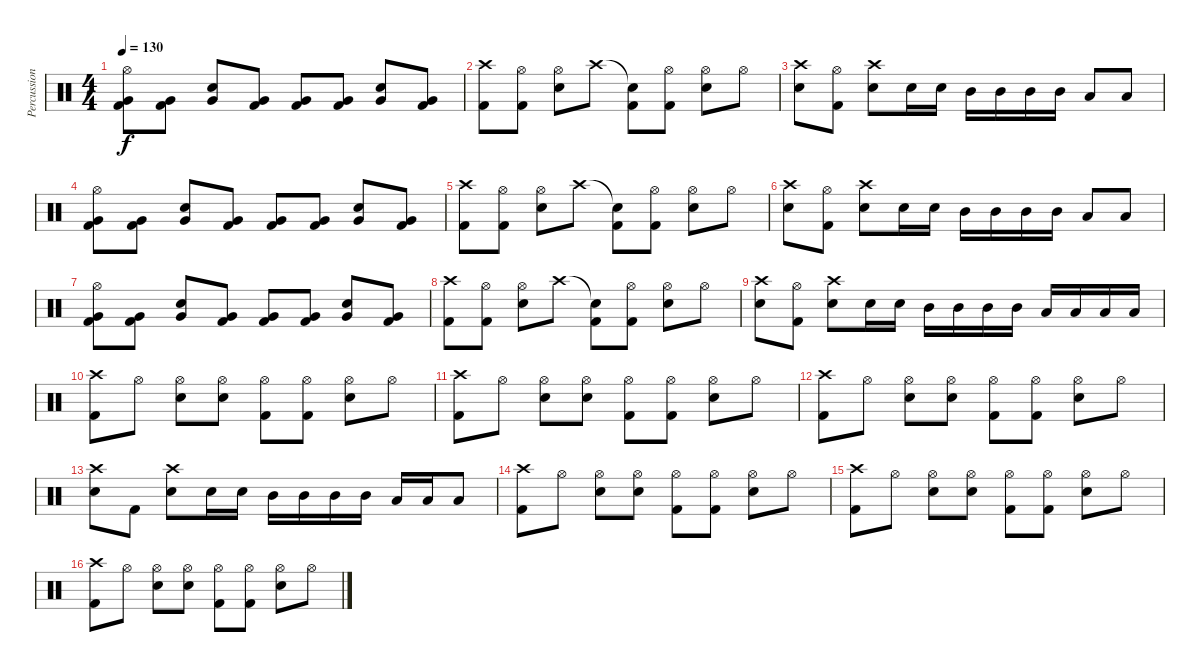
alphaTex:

\track ("Percussion" "Percussion") {instrument percussion}
\staff {score}
\articulation defaults
\ts (4 4)
\tempo 130
\clef neutral
\ks c
("Hi-Hat (open)" "Very Low Tom (hit)" "Kick (hit) 2").8{dy f} ("Very Low Tom (hit)" "Kick (hit) 2").8 ("Very Low Tom (hit)" "Snare (hit) 2").8 ("Very Low Tom (hit)" "Kick (hit) 2").8 ("Very Low Tom (hit)" "Kick (hit) 2").8 ("Very Low Tom (hit)" "Kick (hit) 2").8 ("Very Low Tom (hit)" "Snare (hit) 2").8 ("Very Low Tom (hit)" "Kick (hit) 2").8 |
("Crash high (hit)" "Kick (hit) 2").8 ("Hi-Hat (open)" "Kick (hit) 2").8 ("Hi-Hat (open)" "Snare (hit) 2").8 "Crash high (hit)".8 ("Snare (hit)"{t} "Kick (hit) 2").8 ("Hi-Hat (open)" "Kick (hit) 2").8 ("Hi-Hat (open)" "Snare (hit) 2").8 "Hi-Hat (open)".8 |
("Crash high (hit)" "Snare (hit) 2").8 ("Hi-Hat (open)" "Kick (hit) 2").8 ("Crash high (hit)" "Snare (hit) 2").8 "Snare (hit) 2".16 "Snare (hit) 2".16 "Mid Tom (hit)".16 "Mid Tom (hit)".16 "Mid Tom (hit)".16 "Mid Tom (hit)".16 "Low Tom (hit)".8 "Low Tom (hit)".8 |
("Hi-Hat (open)" "Very Low Tom (hit)" "Kick (hit) 2").8 ("Very Low Tom (hit)" "Kick (hit) 2").8 ("Very Low Tom (hit)" "Snare (hit) 2").8 ("Very Low Tom (hit)" "Kick (hit) 2").8 ("Very Low Tom (hit)" "Kick (hit) 2").8 ("Very Low Tom (hit)" "Kick (hit) 2").8 ("Very Low Tom (hit)" "Snare (hit) 2").8 ("Very Low Tom (hit)" "Kick (hit) 2").8 |
("Crash high (hit)" "Kick (hit) 2").8 ("Hi-Hat (open)" "Kick (hit) 2").8 ("Hi-Hat (open)" "Snare (hit) 2").8 "Crash high (hit)".8 ("Snare (hit)"{t} "Kick (hit) 2").8 ("Hi-Hat (open)" "Kick (hit) 2").8 ("Hi-Hat (open)" "Snare (hit) 2").8 "Hi-Hat (open)".8 |
("Crash high (hit)" "Snare (hit) 2").8 ("Hi-Hat (open)" "Kick (hit) 2").8 ("Crash high (hit)" "Snare (hit) 2").8 "Snare (hit) 2".16 "Snare (hit) 2".16 "Mid Tom (hit)".16 "Mid Tom (hit)".16 "Mid Tom (hit)".16 "Mid Tom (hit)".16 "Low Tom (hit)".8 "Low Tom (hit)".8 |
("Hi-Hat (open)" "Very Low Tom (hit)" "Kick (hit) 2").8 ("Very Low Tom (hit)" "Kick (hit) 2").8 ("Very Low Tom (hit)" "Snare (hit) 2").8 ("Very Low Tom (hit)" "Kick (hit) 2").8 ("Very Low Tom (hit)" "Kick (hit) 2").8 ("Very Low Tom (hit)" "Kick (hit) 2").8 ("Very Low Tom (hit)" "Snare (hit) 2").8 ("Very Low Tom (hit)" "Kick (hit) 2").8 |
("Crash high (hit)" "Kick (hit) 2").8 ("Hi-Hat (open)" "Kick (hit) 2").8 ("Hi-Hat (open)" "Snare (hit) 2").8 "Crash high (hit)".8 ("Snare (hit)"{t} "Kick (hit) 2").8 ("Hi-Hat (open)" "Kick (hit) 2").8 ("Hi-Hat (open)" "Snare (hit) 2").8 "Hi-Hat (open)".8 |
("Crash high (hit)" "Snare (hit) 2").8 ("Hi-Hat (open)" "Kick (hit) 2").8 ("Crash high (hit)" "Snare (hit) 2").8 "Snare (hit) 2".16 "Snare (hit) 2".16 "Mid Tom (hit)".16 "Mid Tom (hit)".16 "Mid Tom (hit)".16 "Mid Tom (hit)".16 "Low Tom (hit)".16 "Low Tom (hit)".16 "Low Tom (hit)".16 "Low Tom (hit)".16 |
("Crash high (hit)" "Kick (hit) 2").8 "Hi-Hat (open)".8 ("Hi-Hat (open)" "Snare (hit) 2").8 ("Hi-Hat (open)" "Snare (hit) 2").8 ("Hi-Hat (open)" "Kick (hit) 2").8 ("Hi-Hat (open)" "Kick (hit) 2").8 ("Hi-Hat (open)" "Snare (hit) 2").8 "Hi-Hat (open)".8 |
("Crash high (hit)" "Kick (hit) 2").8 "Hi-Hat (open)".8 ("Hi-Hat (open)" "Snare (hit) 2").8 ("Hi-Hat (open)" "Snare (hit) 2").8 ("Hi-Hat (open)" "Kick (hit) 2").8 ("Hi-Hat (open)" "Kick (hit) 2").8 ("Hi-Hat (open)" "Snare (hit) 2").8 "Hi-Hat (open)".8 |
("Crash high (hit)" "Kick (hit) 2").8 "Hi-Hat (open)".8 ("Hi-Hat (open)" "Snare (hit) 2").8 ("Hi-Hat (open)" "Snare (hit) 2").8 ("Hi-Hat (open)" "Kick (hit) 2").8 ("Hi-Hat (open)" "Kick (hit) 2").8 ("Hi-Hat (open)" "Snare (hit) 2").8 "Hi-Hat (open)".8 |
("Crash high (hit)" "Snare (hit) 2").8 "Kick (hit) 2".8 ("Crash high (hit)" "Snare (hit) 2").8 "Snare (hit) 2".16 "Snare (hit) 2".16 "Mid Tom (hit)".16 "Mid Tom (hit)".16 "Mid Tom (hit)".16 "Mid Tom (hit)".16 "Low Tom (hit)".16 "Low Tom (hit)".16 "Low Tom (hit)".8 |
("Crash high (hit)" "Kick (hit) 2").8 "Hi-Hat (open)".8 ("Hi-Hat (open)" "Snare (hit) 2").8 ("Hi-Hat (open)" "Snare (hit) 2").8 ("Hi-Hat (open)" "Kick (hit) 2").8 ("Hi-Hat (open)" "Kick (hit) 2").8 ("Hi-Hat (open)" "Snare (hit) 2").8 "Hi-Hat (open)".8 |
("Crash high (hit)" "Kick (hit) 2").8 "Hi-Hat (open)".8 ("Hi-Hat (open)" "Snare (hit) 2").8 ("Hi-Hat (open)" "Snare (hit) 2").8 ("Hi-Hat (open)" "Kick (hit) 2").8 ("Hi-Hat (open)" "Kick (hit) 2").8 ("Hi-Hat (open)" "Snare (hit) 2").8 "Hi-Hat (open)".8 |
("Crash high (hit)" "Kick (hit) 2").8 "Hi-Hat (open)".8 ("Hi-Hat (open)" "Snare (hit) 2").8 ("Hi-Hat (open)" "Snare (hit) 2").8 ("Hi-Hat (open)" "Kick (hit) 2").8 ("Hi-Hat (open)" "Kick (hit) 2").8 ("Hi-Hat (open)" "Snare (hit) 2").8 "Hi-Hat (open)".8
